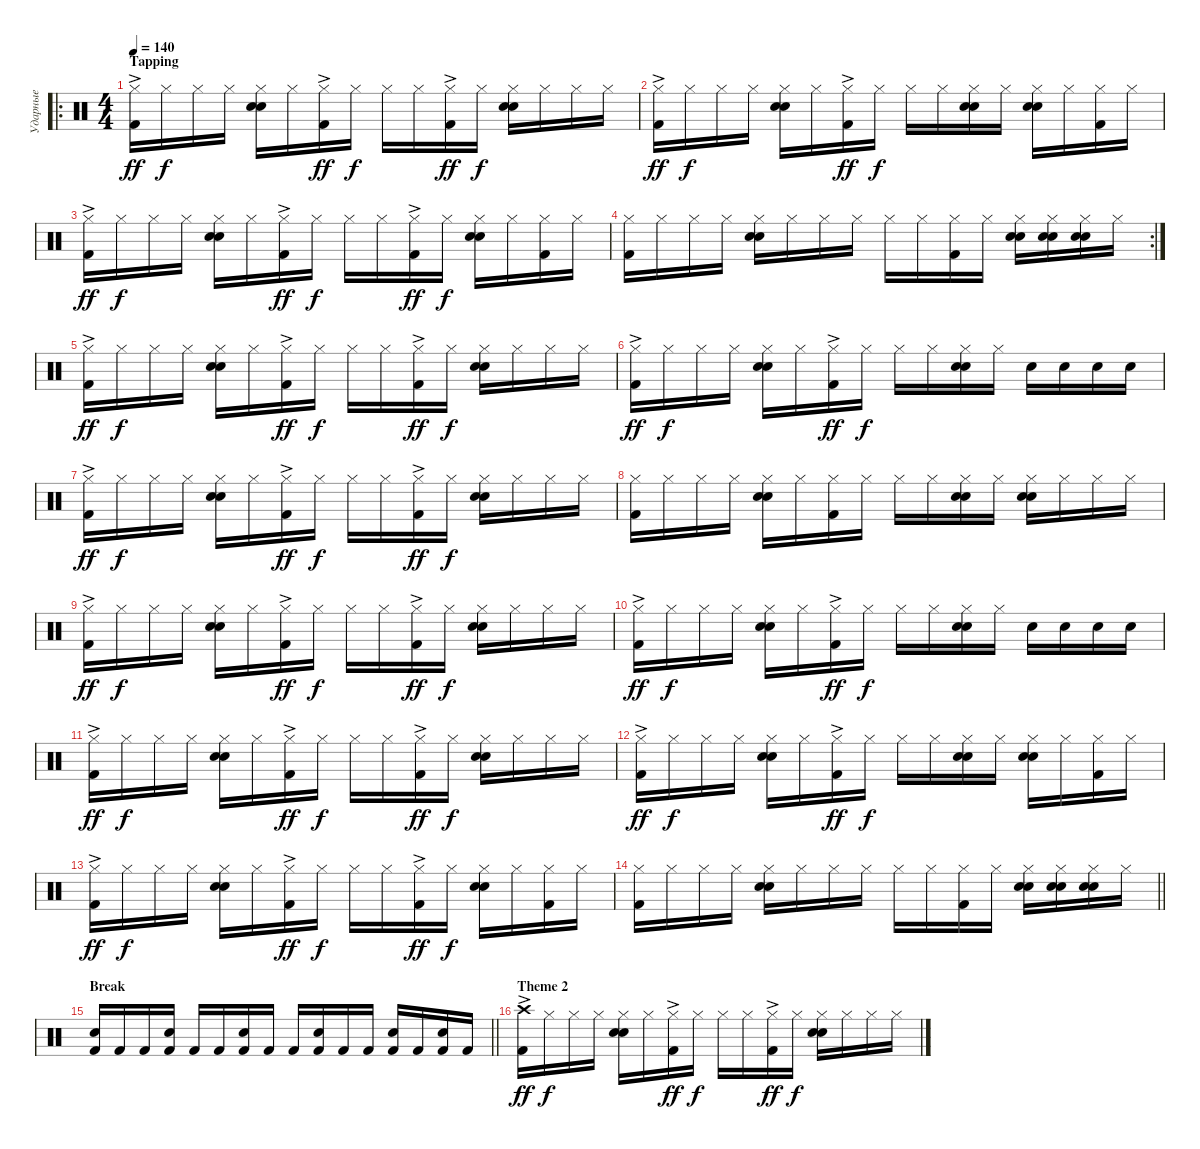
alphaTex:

\track ("Ударные" "Ударные") {instrument percussion}
\staff {score}
\articulation defaults
\ro
\ts (4 4)
\section ("" "Tapping ")
\tempo 140
\clef neutral
\ks c
("Kick (hit) 2"{ac} "Hi-Hat (closed)").16{dy ff} "Hi-Hat (closed)".16{dy f} "Hi-Hat (closed)".16 "Hi-Hat (closed)".16 ("Snare (hit) 2" "Hand Clap (hit)" "Hi-Hat (closed)").16 "Hi-Hat (closed)".16 ("Kick (hit) 2"{ac} "Hi-Hat (closed)").16{dy ff} "Hi-Hat (closed)".16{dy f} "Hi-Hat (closed)".16 "Hi-Hat (closed)".16 ("Kick (hit) 2"{ac} "Hi-Hat (closed)").16{dy ff} "Hi-Hat (closed)".16{dy f} ("Snare (hit) 2" "Hand Clap (hit)" "Hi-Hat (closed)").16 "Hi-Hat (closed)".16 "Hi-Hat (closed)".16 "Hi-Hat (closed)".16 |
("Kick (hit) 2"{ac} "Hi-Hat (closed)").16{dy ff} "Hi-Hat (closed)".16{dy f} "Hi-Hat (closed)".16 "Hi-Hat (closed)".16 ("Snare (hit) 2" "Hand Clap (hit)" "Hi-Hat (closed)").16 "Hi-Hat (closed)".16 ("Kick (hit) 2"{ac} "Hi-Hat (closed)").16{dy ff} "Hi-Hat (closed)".16{dy f} "Hi-Hat (closed)".16 "Hi-Hat (closed)".16 ("Snare (hit) 2" "Hand Clap (hit)" "Hi-Hat (closed)").16 "Hi-Hat (closed)".16 ("Snare (hit) 2" "Hand Clap (hit)" "Hi-Hat (closed)").16 "Hi-Hat (closed)".16 ("Kick (hit) 2" "Hi-Hat (closed)").16 "Hi-Hat (closed)".16 |
("Kick (hit) 2"{ac} "Hi-Hat (closed)").16{dy ff} "Hi-Hat (closed)".16{dy f} "Hi-Hat (closed)".16 "Hi-Hat (closed)".16 ("Snare (hit) 2" "Hand Clap (hit)" "Hi-Hat (closed)").16 "Hi-Hat (closed)".16 ("Kick (hit) 2"{ac} "Hi-Hat (closed)").16{dy ff} "Hi-Hat (closed)".16{dy f} "Hi-Hat (closed)".16 "Hi-Hat (closed)".16 ("Kick (hit) 2"{ac} "Hi-Hat (closed)").16{dy ff} "Hi-Hat (closed)".16{dy f} ("Snare (hit) 2" "Hand Clap (hit)" "Hi-Hat (closed)").16 "Hi-Hat (closed)".16 ("Kick (hit) 2" "Hi-Hat (closed)").16 "Hi-Hat (closed)".16 |
\rc 2
("Kick (hit) 2" "Hi-Hat (closed)").16 "Hi-Hat (closed)".16 "Hi-Hat (closed)".16 "Hi-Hat (closed)".16 ("Snare (hit) 2" "Hand Clap (hit)" "Hi-Hat (closed)").16 "Hi-Hat (closed)".16 "Hi-Hat (closed)".16 "Hi-Hat (closed)".16 "Hi-Hat (closed)".16 "Hi-Hat (closed)".16 ("Kick (hit) 2" "Hi-Hat (closed)").16 "Hi-Hat (closed)".16 ("Snare (hit) 2" "Hand Clap (hit)" "Hi-Hat (closed)").16 ("Snare (hit) 2" "Hand Clap (hit)" "Hi-Hat (closed)").16 ("Snare (hit) 2" "Hand Clap (hit)" "Hi-Hat (closed)").16 "Hi-Hat (closed)".16 |
("Kick (hit) 2"{ac} "Hi-Hat (closed)").16{dy ff} "Hi-Hat (closed)".16{dy f} "Hi-Hat (closed)".16 "Hi-Hat (closed)".16 ("Snare (hit) 2" "Hand Clap (hit)" "Hi-Hat (closed)").16 "Hi-Hat (closed)".16 ("Kick (hit) 2"{ac} "Hi-Hat (closed)").16{dy ff} "Hi-Hat (closed)".16{dy f} "Hi-Hat (closed)".16 "Hi-Hat (closed)".16 ("Kick (hit) 2"{ac} "Hi-Hat (closed)").16{dy ff} "Hi-Hat (closed)".16{dy f} ("Snare (hit) 2" "Hand Clap (hit)" "Hi-Hat (closed)").16 "Hi-Hat (closed)".16 "Hi-Hat (closed)".16 "Hi-Hat (closed)".16 |
("Kick (hit) 2"{ac} "Hi-Hat (closed)").16{dy ff} "Hi-Hat (closed)".16{dy f} "Hi-Hat (closed)".16 "Hi-Hat (closed)".16 ("Snare (hit) 2" "Hand Clap (hit)" "Hi-Hat (closed)").16 "Hi-Hat (closed)".16 ("Kick (hit) 2"{ac} "Hi-Hat (closed)").16{dy ff} "Hi-Hat (closed)".16{dy f} "Hi-Hat (closed)".16 "Hi-Hat (closed)".16 ("Snare (hit) 2" "Hand Clap (hit)" "Hi-Hat (closed)").16 "Hi-Hat (closed)".16 "Snare (hit) 2".16 "Snare (hit) 2".16 "Snare (hit) 2".16 "Snare (hit) 2".16 |
("Kick (hit) 2"{ac} "Hi-Hat (closed)").16{dy ff} "Hi-Hat (closed)".16{dy f} "Hi-Hat (closed)".16 "Hi-Hat (closed)".16 ("Snare (hit) 2" "Hand Clap (hit)" "Hi-Hat (closed)").16 "Hi-Hat (closed)".16 ("Kick (hit) 2"{ac} "Hi-Hat (closed)").16{dy ff} "Hi-Hat (closed)".16{dy f} "Hi-Hat (closed)".16 "Hi-Hat (closed)".16 ("Kick (hit) 2"{ac} "Hi-Hat (closed)").16{dy ff} "Hi-Hat (closed)".16{dy f} ("Snare (hit) 2" "Hand Clap (hit)" "Hi-Hat (closed)").16 "Hi-Hat (closed)".16 "Hi-Hat (closed)".16 "Hi-Hat (closed)".16 |
("Kick (hit) 2" "Hi-Hat (closed)").16 "Hi-Hat (closed)".16 "Hi-Hat (closed)".16 "Hi-Hat (closed)".16 ("Snare (hit) 2" "Hand Clap (hit)" "Hi-Hat (closed)").16 "Hi-Hat (closed)".16 ("Kick (hit) 2" "Hi-Hat (closed)").16 "Hi-Hat (closed)".16 "Hi-Hat (closed)".16 "Hi-Hat (closed)".16 ("Snare (hit) 2" "Hand Clap (hit)" "Hi-Hat (closed)").16 "Hi-Hat (closed)".16 ("Snare (hit) 2" "Hand Clap (hit)" "Hi-Hat (closed)").16 "Hi-Hat (closed)".16 "Hi-Hat (closed)".16 "Hi-Hat (closed)".16 |
("Kick (hit) 2"{ac} "Hi-Hat (closed)").16{dy ff} "Hi-Hat (closed)".16{dy f} "Hi-Hat (closed)".16 "Hi-Hat (closed)".16 ("Snare (hit) 2" "Hand Clap (hit)" "Hi-Hat (closed)").16 "Hi-Hat (closed)".16 ("Kick (hit) 2"{ac} "Hi-Hat (closed)").16{dy ff} "Hi-Hat (closed)".16{dy f} "Hi-Hat (closed)".16 "Hi-Hat (closed)".16 ("Kick (hit) 2"{ac} "Hi-Hat (closed)").16{dy ff} "Hi-Hat (closed)".16{dy f} ("Snare (hit) 2" "Hand Clap (hit)" "Hi-Hat (closed)").16 "Hi-Hat (closed)".16 "Hi-Hat (closed)".16 "Hi-Hat (closed)".16 |
("Kick (hit) 2"{ac} "Hi-Hat (closed)").16{dy ff} "Hi-Hat (closed)".16{dy f} "Hi-Hat (closed)".16 "Hi-Hat (closed)".16 ("Snare (hit) 2" "Hand Clap (hit)" "Hi-Hat (closed)").16 "Hi-Hat (closed)".16 ("Kick (hit) 2"{ac} "Hi-Hat (closed)").16{dy ff} "Hi-Hat (closed)".16{dy f} "Hi-Hat (closed)".16 "Hi-Hat (closed)".16 ("Snare (hit) 2" "Hand Clap (hit)" "Hi-Hat (closed)").16 "Hi-Hat (closed)".16 "Snare (hit) 2".16 "Snare (hit) 2".16 "Snare (hit) 2".16 "Snare (hit) 2".16 |
("Kick (hit) 2"{ac} "Hi-Hat (closed)").16{dy ff} "Hi-Hat (closed)".16{dy f} "Hi-Hat (closed)".16 "Hi-Hat (closed)".16 ("Snare (hit) 2" "Hand Clap (hit)" "Hi-Hat (closed)").16 "Hi-Hat (closed)".16 ("Kick (hit) 2"{ac} "Hi-Hat (closed)").16{dy ff} "Hi-Hat (closed)".16{dy f} "Hi-Hat (closed)".16 "Hi-Hat (closed)".16 ("Kick (hit) 2"{ac} "Hi-Hat (closed)").16{dy ff} "Hi-Hat (closed)".16{dy f} ("Snare (hit) 2" "Hand Clap (hit)" "Hi-Hat (closed)").16 "Hi-Hat (closed)".16 "Hi-Hat (closed)".16 "Hi-Hat (closed)".16 |
("Kick (hit) 2"{ac} "Hi-Hat (closed)").16{dy ff} "Hi-Hat (closed)".16{dy f} "Hi-Hat (closed)".16 "Hi-Hat (closed)".16 ("Snare (hit) 2" "Hand Clap (hit)" "Hi-Hat (closed)").16 "Hi-Hat (closed)".16 ("Kick (hit) 2"{ac} "Hi-Hat (closed)").16{dy ff} "Hi-Hat (closed)".16{dy f} "Hi-Hat (closed)".16 "Hi-Hat (closed)".16 ("Snare (hit) 2" "Hand Clap (hit)" "Hi-Hat (closed)").16 "Hi-Hat (closed)".16 ("Snare (hit) 2" "Hand Clap (hit)" "Hi-Hat (closed)").16 "Hi-Hat (closed)".16 ("Kick (hit) 2" "Hi-Hat (closed)").16 "Hi-Hat (closed)".16 |
("Kick (hit) 2"{ac} "Hi-Hat (closed)").16{dy ff} "Hi-Hat (closed)".16{dy f} "Hi-Hat (closed)".16 "Hi-Hat (closed)".16 ("Snare (hit) 2" "Hand Clap (hit)" "Hi-Hat (closed)").16 "Hi-Hat (closed)".16 ("Kick (hit) 2"{ac} "Hi-Hat (closed)").16{dy ff} "Hi-Hat (closed)".16{dy f} "Hi-Hat (closed)".16 "Hi-Hat (closed)".16 ("Kick (hit) 2"{ac} "Hi-Hat (closed)").16{dy ff} "Hi-Hat (closed)".16{dy f} ("Snare (hit) 2" "Hand Clap (hit)" "Hi-Hat (closed)").16 "Hi-Hat (closed)".16 ("Kick (hit) 2" "Hi-Hat (closed)").16 "Hi-Hat (closed)".16 |
\barLineRight lightlight
("Kick (hit) 2" "Hi-Hat (closed)").16 "Hi-Hat (closed)".16 "Hi-Hat (closed)".16 "Hi-Hat (closed)".16 ("Snare (hit) 2" "Hand Clap (hit)" "Hi-Hat (closed)").16 "Hi-Hat (closed)".16 "Hi-Hat (closed)".16 "Hi-Hat (closed)".16 "Hi-Hat (closed)".16 "Hi-Hat (closed)".16 ("Kick (hit) 2" "Hi-Hat (closed)").16 "Hi-Hat (closed)".16 ("Snare (hit) 2" "Hand Clap (hit)" "Hi-Hat (closed)").16 ("Snare (hit) 2" "Hand Clap (hit)" "Hi-Hat (closed)").16 ("Snare (hit) 2" "Hand Clap (hit)" "Hi-Hat (closed)").16 "Hi-Hat (closed)".16 |
\section ("" "Break")
\barLineRight lightlight
("Kick (hit) 2" "Snare (hit) 2").16 "Kick (hit) 2".16 "Kick (hit) 2".16 ("Kick (hit) 2" "Snare (hit) 2").16 "Kick (hit) 2".16 "Kick (hit) 2".16 ("Kick (hit) 2" "Snare (hit) 2").16 "Kick (hit) 2".16 "Kick (hit) 2".16 ("Kick (hit) 2" "Snare (hit) 2").16 "Kick (hit) 2".16 "Kick (hit) 2".16 ("Kick (hit) 2" "Snare (hit) 2").16 "Kick (hit) 2".16 ("Kick (hit) 2" "Snare (hit) 2").16 "Kick (hit) 2".16 |
\section ("" "Theme 2")
("Kick (hit) 2"{ac} "Crash high (hit)").16{dy ff} "Hi-Hat (closed)".16{dy f} "Hi-Hat (closed)".16 "Hi-Hat (closed)".16 ("Snare (hit) 2" "Hand Clap (hit)" "Hi-Hat (closed)").16 "Hi-Hat (closed)".16 ("Kick (hit) 2"{ac} "Hi-Hat (closed)").16{dy ff} "Hi-Hat (closed)".16{dy f} "Hi-Hat (closed)".16 "Hi-Hat (closed)".16 ("Kick (hit) 2"{ac} "Hi-Hat (closed)").16{dy ff} "Hi-Hat (closed)".16{dy f} ("Snare (hit) 2" "Hand Clap (hit)" "Hi-Hat (closed)").16 "Hi-Hat (closed)".16 "Hi-Hat (closed)".16 "Hi-Hat (closed)".16
